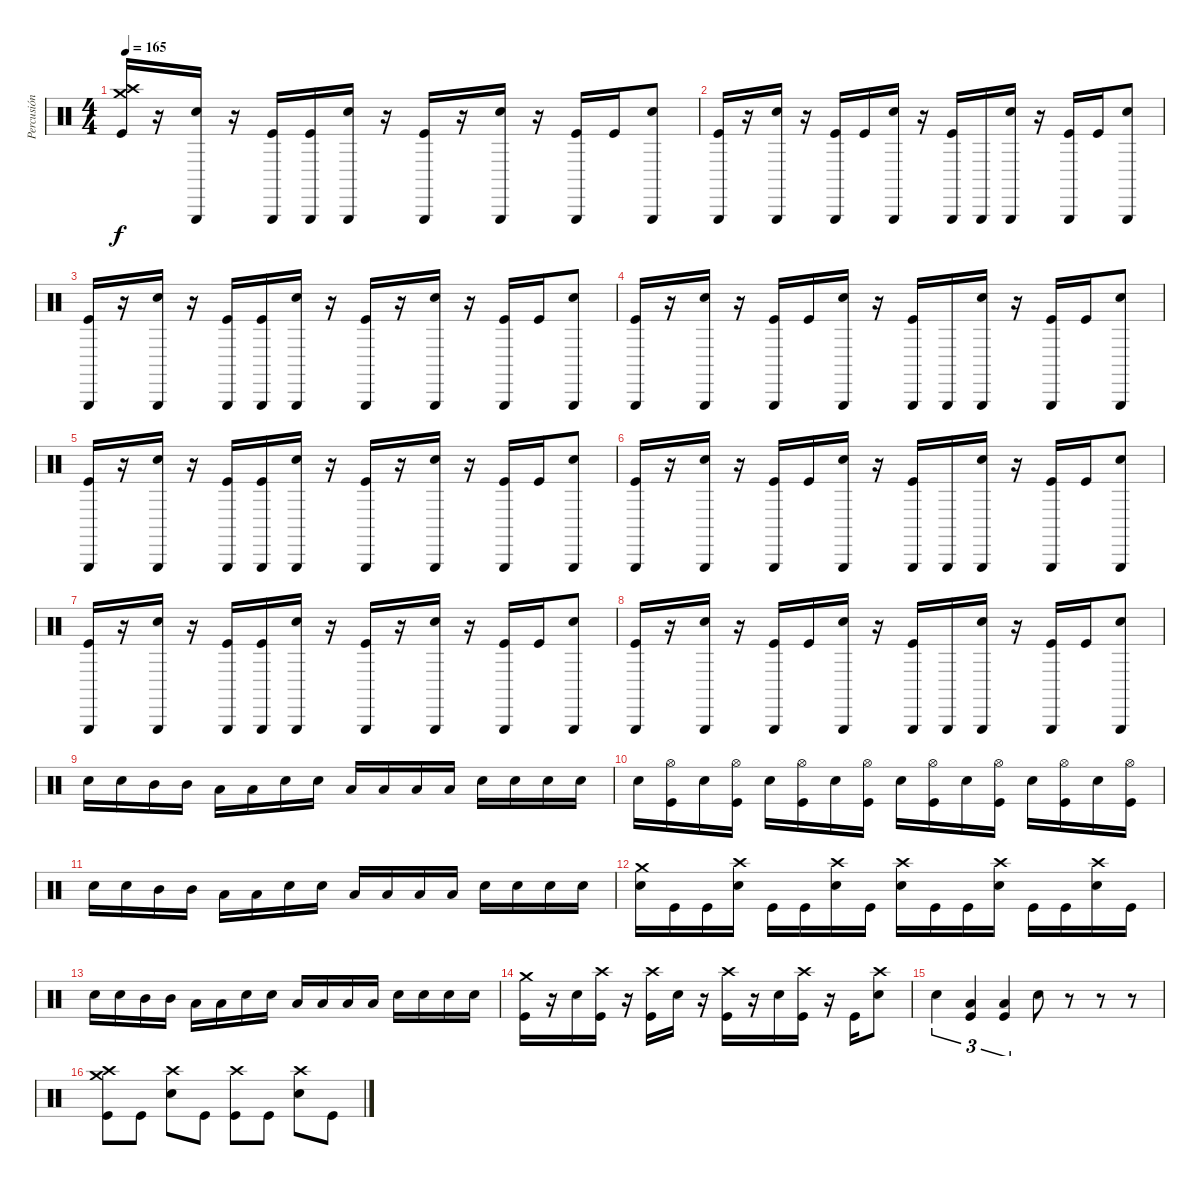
\track ("Percusión" "Percusión") {instrument percussion}
\staff {score}
\articulation defaults
\ts (4 4)
\tempo 165
\clef neutral
\ks c
("Crash medium (hit)" "Crash high (hit)" "Kick (hit)").16{dy f} r.16 ("Triangle (hit)" "Electric Snare (hit)").16 r.16 ("Triangle (hit)" "Kick (hit)").16 ("Triangle (hit)" "Kick (hit)").16 ("Triangle (hit)" "Electric Snare (hit)").16 r.16 ("Triangle (hit)" "Kick (hit)").16 r.16 ("Triangle (hit)" "Electric Snare (hit)").16 r.16 ("Triangle (hit)" "Kick (hit)").16 "Kick (hit)".16 ("Triangle (hit)" "Electric Snare (hit)").8 |
("Triangle (hit)" "Kick (hit)").16 r.16 ("Triangle (hit)" "Electric Snare (hit)").16 r.16 ("Triangle (hit)" "Kick (hit)").16 "Kick (hit)".16 ("Triangle (hit)" "Electric Snare (hit)").16 r.16 ("Triangle (hit)" "Kick (hit)").16 "Triangle (hit)".16 ("Triangle (hit)" "Electric Snare (hit)").16 r.16 ("Triangle (hit)" "Kick (hit)").16 "Kick (hit)".16 ("Triangle (hit)" "Electric Snare (hit)").8 |
("Triangle (hit)" "Kick (hit)").16 r.16 ("Triangle (hit)" "Electric Snare (hit)").16 r.16 ("Triangle (hit)" "Kick (hit)").16 ("Triangle (hit)" "Kick (hit)").16 ("Triangle (hit)" "Electric Snare (hit)").16 r.16 ("Triangle (hit)" "Kick (hit)").16 r.16 ("Triangle (hit)" "Electric Snare (hit)").16 r.16 ("Triangle (hit)" "Kick (hit)").16 "Kick (hit)".16 ("Triangle (hit)" "Electric Snare (hit)").8 |
("Triangle (hit)" "Kick (hit)").16 r.16 ("Triangle (hit)" "Electric Snare (hit)").16 r.16 ("Triangle (hit)" "Kick (hit)").16 "Kick (hit)".16 ("Triangle (hit)" "Electric Snare (hit)").16 r.16 ("Triangle (hit)" "Kick (hit)").16 "Triangle (hit)".16 ("Triangle (hit)" "Electric Snare (hit)").16 r.16 ("Triangle (hit)" "Kick (hit)").16 "Kick (hit)".16 ("Triangle (hit)" "Electric Snare (hit)").8 |
("Triangle (hit)" "Kick (hit)").16 r.16 ("Triangle (hit)" "Electric Snare (hit)").16 r.16 ("Triangle (hit)" "Kick (hit)").16 ("Triangle (hit)" "Kick (hit)").16 ("Triangle (hit)" "Electric Snare (hit)").16 r.16 ("Triangle (hit)" "Kick (hit)").16 r.16 ("Triangle (hit)" "Electric Snare (hit)").16 r.16 ("Triangle (hit)" "Kick (hit)").16 "Kick (hit)".16 ("Triangle (hit)" "Electric Snare (hit)").8 |
("Triangle (hit)" "Kick (hit)").16 r.16 ("Triangle (hit)" "Electric Snare (hit)").16 r.16 ("Triangle (hit)" "Kick (hit)").16 "Kick (hit)".16 ("Triangle (hit)" "Electric Snare (hit)").16 r.16 ("Triangle (hit)" "Kick (hit)").16 "Triangle (hit)".16 ("Triangle (hit)" "Electric Snare (hit)").16 r.16 ("Triangle (hit)" "Kick (hit)").16 "Kick (hit)".16 ("Triangle (hit)" "Electric Snare (hit)").8 |
("Triangle (hit)" "Kick (hit)").16 r.16 ("Triangle (hit)" "Electric Snare (hit)").16 r.16 ("Triangle (hit)" "Kick (hit)").16 ("Triangle (hit)" "Kick (hit)").16 ("Triangle (hit)" "Electric Snare (hit)").16 r.16 ("Triangle (hit)" "Kick (hit)").16 r.16 ("Triangle (hit)" "Electric Snare (hit)").16 r.16 ("Triangle (hit)" "Kick (hit)").16 "Kick (hit)".16 ("Triangle (hit)" "Electric Snare (hit)").8 |
("Triangle (hit)" "Kick (hit)").16 r.16 ("Triangle (hit)" "Electric Snare (hit)").16 r.16 ("Triangle (hit)" "Kick (hit)").16 "Kick (hit)".16 ("Triangle (hit)" "Electric Snare (hit)").16 r.16 ("Triangle (hit)" "Kick (hit)").16 "Triangle (hit)".16 ("Triangle (hit)" "Electric Snare (hit)").16 r.16 ("Triangle (hit)" "Kick (hit)").16 "Kick (hit)".16 ("Triangle (hit)" "Electric Snare (hit)").8 |
"Electric Snare (hit)".16 "Electric Snare (hit)".16 "Mid Tom (hit)".16 "Mid Tom (hit)".16 "Low Tom (hit)".16 "Low Tom (hit)".16 "Electric Snare (hit)".16 "Electric Snare (hit)".16 "Low Tom (hit)".16 "Low Tom (hit)".16 "Low Tom (hit)".16 "Low Tom (hit)".16 "Electric Snare (hit)".16 "Electric Snare (hit)".16 "Electric Snare (hit)".16 "Electric Snare (hit)".16 |
"Electric Snare (hit)".16 ("Hi-Hat (open)" "Kick (hit)").16 "Electric Snare (hit)".16 ("Hi-Hat (open)" "Kick (hit)").16 "Electric Snare (hit)".16 ("Hi-Hat (open)" "Kick (hit)").16 "Electric Snare (hit)".16 ("Hi-Hat (open)" "Kick (hit)").16 "Electric Snare (hit)".16 ("Hi-Hat (open)" "Kick (hit)").16 "Electric Snare (hit)".16 ("Hi-Hat (open)" "Kick (hit)").16 "Electric Snare (hit)".16 ("Hi-Hat (open)" "Kick (hit)").16 "Electric Snare (hit)".16 ("Hi-Hat (open)" "Kick (hit)").16 |
"Electric Snare (hit)".16 "Electric Snare (hit)".16 "Mid Tom (hit)".16 "Mid Tom (hit)".16 "Low Tom (hit)".16 "Low Tom (hit)".16 "Electric Snare (hit)".16 "Electric Snare (hit)".16 "Low Tom (hit)".16 "Low Tom (hit)".16 "Low Tom (hit)".16 "Low Tom (hit)".16 "Electric Snare (hit)".16 "Electric Snare (hit)".16 "Electric Snare (hit)".16 "Electric Snare (hit)".16 |
("Crash medium (hit)" "Electric Snare (hit)").16 "Kick (hit)".16 "Kick (hit)".16 ("Crash high (hit)" "Electric Snare (hit)").16 "Kick (hit)".16 "Kick (hit)".16 ("Crash high (hit)" "Electric Snare (hit)").16 "Kick (hit)".16 ("Crash high (hit)" "Electric Snare (hit)").16 "Kick (hit)".16 "Kick (hit)".16 ("Crash high (hit)" "Electric Snare (hit)").16 "Kick (hit)".16 "Kick (hit)".16 ("Crash high (hit)" "Electric Snare (hit)").16 "Kick (hit)".16 |
"Electric Snare (hit)".16 "Electric Snare (hit)".16 "Mid Tom (hit)".16 "Mid Tom (hit)".16 "Low Tom (hit)".16 "Low Tom (hit)".16 "Electric Snare (hit)".16 "Electric Snare (hit)".16 "Low Tom (hit)".16 "Low Tom (hit)".16 "Low Tom (hit)".16 "Low Tom (hit)".16 "Electric Snare (hit)".16 "Electric Snare (hit)".16 "Electric Snare (hit)".16 "Electric Snare (hit)".16 |
("Crash medium (hit)" "Kick (hit)").16 r.16 "Electric Snare (hit)".16 ("Crash high (hit)" "Kick (hit)").16 r.16 ("Crash high (hit)" "Kick (hit)").16 "Electric Snare (hit)".16 r.16 ("Crash high (hit)" "Kick (hit)").16 r.16 "Electric Snare (hit)".16 ("Crash high (hit)" "Kick (hit)").16 r.16 "Kick (hit)".16 ("Crash high (hit)" "Electric Snare (hit)").8 |
"Electric Snare (hit)".4{tu (3 2)} ("Low Tom (hit)" "Kick (hit)").4{tu (3 2)} ("Low Tom (hit)" "Kick (hit)").4{tu (3 2)} "Electric Snare (hit)".8 r.8 r.8 r.8 |
("Crash medium (hit)" "Crash high (hit)" "Kick (hit)").8 "Kick (hit)".8 ("Crash high (hit)" "Electric Snare (hit)").8 "Kick (hit)".8 ("Crash high (hit)" "Kick (hit)").8 "Kick (hit)".8 ("Crash high (hit)" "Electric Snare (hit)").8 "Kick (hit)".8
